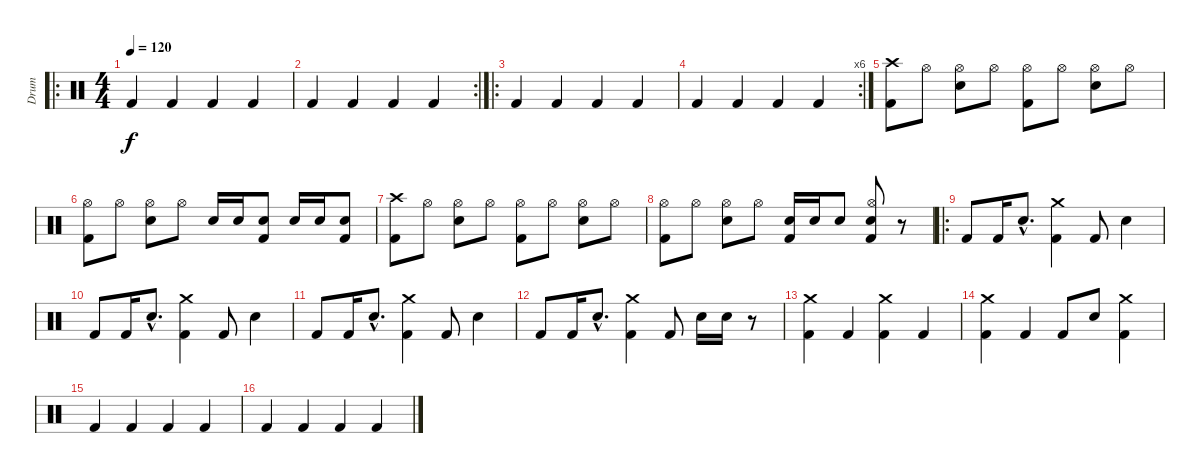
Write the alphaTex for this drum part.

\track ("Drum" "Drum") {instrument percussion}
\staff {score}
\articulation defaults
\ro
\ts (4 4)
\tempo 120
\clef neutral
\ks c "Kick (hit) 2".4{dy f} "Kick (hit) 2".4 "Kick (hit) 2".4 "Kick (hit) 2".4
|
\rc 2 "Kick (hit) 2".4 "Kick (hit) 2".4 "Kick (hit) 2".4 "Kick (hit) 2".4
|
\ro "Kick (hit) 2".4 "Kick (hit) 2".4 "Kick (hit) 2".4 "Kick (hit) 2".4
|
\rc 6 "Kick (hit) 2".4 "Kick (hit) 2".4 "Kick (hit) 2".4 "Kick (hit) 2".4
|
("Crash high (hit)" "Kick (hit) 2").8 "Hi-Hat (open)".8 ("Hi-Hat (open)" "Electric Snare (hit)").8 "Hi-Hat (open)".8 ("Hi-Hat (open)" "Kick (hit) 2").8 "Hi-Hat (open)".8 ("Hi-Hat (open)" "Electric Snare (hit)").8 "Hi-Hat (open)".8 |
("Hi-Hat (open)" "Kick (hit) 2").8 "Hi-Hat (open)".8 ("Hi-Hat (open)" "Electric Snare (hit)").8 "Hi-Hat (open)".8 "Electric Snare (hit)".16 "Electric Snare (hit)".16 ("Electric Snare (hit)" "Kick (hit) 2").8 "Electric Snare (hit)".16 "Electric Snare (hit)".16 ("Electric Snare (hit)" "Kick (hit) 2").8 |
("Crash high (hit)" "Kick (hit) 2").8 "Hi-Hat (open)".8 ("Hi-Hat (open)" "Electric Snare (hit)").8 "Hi-Hat (open)".8 ("Hi-Hat (open)" "Kick (hit) 2").8 "Hi-Hat (open)".8 ("Hi-Hat (open)" "Electric Snare (hit)").8 "Hi-Hat (open)".8 |
("Hi-Hat (open)" "Kick (hit) 2").8 "Hi-Hat (open)".8 ("Hi-Hat (open)" "Electric Snare (hit)").8 "Hi-Hat (open)".8 ("Electric Snare (hit)" "Kick (hit) 2").16 "Electric Snare (hit)".16 "Electric Snare (hit)".8 ("Hi-Hat (open)" "Electric Snare (hit)" "Kick (hit) 2").8 r.8 |
\ro "Kick (hit) 2".8 "Kick (hit) 2".16 "Electric Snare (hit)"{hac}.8{d}
("Crash medium (hit)" "Kick (hit) 2").4 "Kick (hit) 2".8 "Electric Snare (hit)".4 |
"Kick (hit) 2".8 "Kick (hit) 2".16 "Electric Snare (hit)"{hac}.8{d} ("Crash medium (hit)" "Kick (hit) 2").4 "Kick (hit) 2".8 "Electric Snare (hit)".4 |
"Kick (hit) 2".8 "Kick (hit) 2".16 "Electric Snare (hit)"{hac}.8{d} ("Crash medium (hit)" "Kick (hit) 2").4 "Kick (hit) 2".8 "Electric Snare (hit)".4 |
"Kick (hit) 2".8 "Kick (hit) 2".16 "Electric Snare (hit)"{hac}.8{d} ("Crash medium (hit)" "Kick (hit) 2").4 "Kick (hit) 2".8 "Electric Snare (hit)".16 "Electric Snare (hit)".16 r.8 |
("Crash medium (hit)" "Kick (hit) 2").4 "Kick (hit) 2".4 ("Crash medium (hit)" "Kick (hit) 2").4 "Kick (hit) 2".4 |
("Crash medium (hit)" "Kick (hit) 2").4 "Kick (hit) 2".4 "Kick (hit) 2".8 "Electric Snare (hit)".8 ("Crash medium (hit)" "Kick (hit) 2").4 |
"Kick (hit) 2".4 "Kick (hit) 2".4 "Kick (hit) 2".4 "Kick (hit) 2".4 |
"Kick (hit) 2".4 "Kick (hit) 2".4 "Kick (hit) 2".4 "Kick (hit) 2".4
